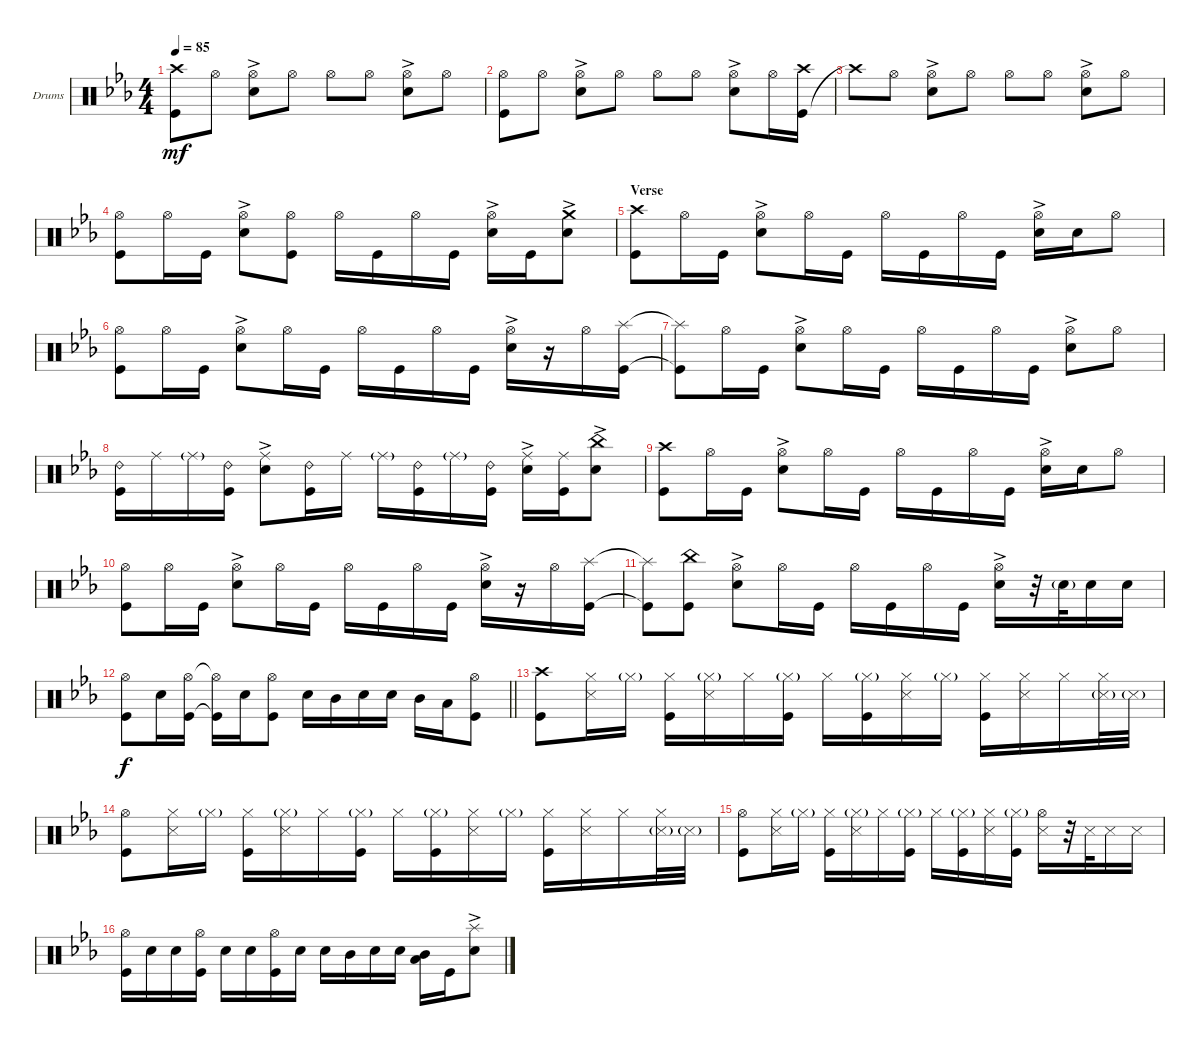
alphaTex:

\bracketExtendMode groupsimilarinstruments
\firstSystemTrackNameOrientation horizontal
\otherSystemsTrackNameOrientation horizontal
\track ("Drumkit" "Drums") {instrument percussion}
\staff {score}
\articulation defaults
\ts (4 4)
\tempo 85
\clef neutral
\ks cminor
("Kick (hit)" "Crash high (hit)").8{dy mf} "Hi-Hat (open)".8 ("Hi-Hat (open)" "Snare (hit) 2"{ac}).8 "Hi-Hat (open)".8 "Hi-Hat (open)".8 "Hi-Hat (open)".8 ("Hi-Hat (open)" "Snare (hit) 2"{ac}).8 "Hi-Hat (open)".8 |
("Kick (hit)" "Hi-Hat (open)").8 "Hi-Hat (open)".8 ("Hi-Hat (open)" "Snare (hit) 2"{ac}).8 "Hi-Hat (open)".8 "Hi-Hat (open)".8 "Hi-Hat (open)".8 ("Hi-Hat (open)" "Snare (hit) 2"{ac}).8 "Hi-Hat (open)".16 ("Kick (hit)" "Crash high (hit)").16 |
"Crash high (hit)"{t}.8 "Hi-Hat (open)".8 ("Hi-Hat (open)" "Snare (hit) 2"{ac}).8 "Hi-Hat (open)".8 "Hi-Hat (open)".8 "Hi-Hat (open)".8 ("Hi-Hat (open)" "Snare (hit) 2"{ac}).8 "Hi-Hat (open)".8 |
("Kick (hit)" "Hi-Hat (open)").8 "Hi-Hat (open)".16 "Kick (hit)".16 ("Snare (hit) 2"{ac} "Hi-Hat (open)").8 ("Kick (hit)" "Hi-Hat (open)").8 "Hi-Hat (open)".16 "Kick (hit)".16 "Hi-Hat (open)".16 "Kick (hit)".16 ("Snare (hit) 2"{ac} "Hi-Hat (open)").16 "Kick (hit)".16 ("Snare (hit) 2"{ac} "Crash medium (hit)").8 |
\section ("" "Verse")
("Kick (hit)" "Crash high (hit)").8 "Hi-Hat (open)".16 "Kick (hit)".16 ("Snare (hit) 2"{ac} "Hi-Hat (open)").8 "Hi-Hat (open)".16 "Kick (hit)".16 "Hi-Hat (open)".16 "Kick (hit)".16 "Hi-Hat (open)".16 "Kick (hit)".16 ("Snare (hit) 2"{ac} "Hi-Hat (open)").16 "Snare (hit) 2".16 "Hi-Hat (open)".8 |
("Kick (hit)" "Hi-Hat (open)").8 "Hi-Hat (open)".16 "Kick (hit)".16 ("Snare (hit) 2"{ac} "Hi-Hat (open)").8 "Hi-Hat (open)".16 "Kick (hit)".16 "Hi-Hat (open)".16 "Kick (hit)".16 "Hi-Hat (open)".16 "Kick (hit)".16 ("Snare (hit) 2"{ac} "Hi-Hat (open)").16 r.16 "Hi-Hat (open)".16 ("Kick (hit)" "Splash (hit)").16 |
("Kick (hit)"{t} "Splash (hit)"{t}).8 "Hi-Hat (open)".16 "Kick (hit)".16 ("Snare (hit) 2"{ac} "Hi-Hat (open)").8 "Hi-Hat (open)".16 "Kick (hit)".16 "Hi-Hat (open)".16 "Kick (hit)".16 "Hi-Hat (open)".16 "Kick (hit)".16 ("Snare (hit) 2"{ac} "Hi-Hat (open)").8 "Hi-Hat (open)".8 |
("Kick (hit)" "Ride (bell) 2").16 "Ride (middle)".16 "Ride (middle)"{g}.16 ("Kick (hit)" "Ride (bell) 2").16 ("Snare (hit) 2"{ac} "Ride (middle)").8 ("Kick (hit)" "Ride (bell) 2").16 "Ride (middle)".16 "Ride (middle)"{g}.16 ("Kick (hit)" "Ride (bell) 2").16 "Ride (middle)"{g}.16 ("Kick (hit)" "Ride (bell) 2").16 ("Snare (hit) 2"{ac} "Ride (middle)").16 ("Kick (hit)" "Ride (middle)").16 ("Snare (hit) 2"{ac} "China (hit)").8 |
("Kick (hit)" "Crash high (hit)").8 "Hi-Hat (open)".16 "Kick (hit)".16 ("Snare (hit) 2"{ac} "Hi-Hat (open)").8 "Hi-Hat (open)".16 "Kick (hit)".16 "Hi-Hat (open)".16 "Kick (hit)".16 "Hi-Hat (open)".16 "Kick (hit)".16 ("Snare (hit) 2"{ac} "Hi-Hat (open)").16 "Snare (hit) 2".16 "Hi-Hat (open)".8 |
("Kick (hit)" "Hi-Hat (open)").8 "Hi-Hat (open)".16 "Kick (hit)".16 ("Snare (hit) 2"{ac} "Hi-Hat (open)").8 "Hi-Hat (open)".16 "Kick (hit)".16 "Hi-Hat (open)".16 "Kick (hit)".16 "Hi-Hat (open)".16 "Kick (hit)".16 ("Snare (hit) 2"{ac} "Hi-Hat (open)").16 r.16 "Hi-Hat (open)".16 ("Kick (hit)" "Splash (hit)").16 |
("Kick (hit)"{t} "Splash (hit)"{t}).8 ("Kick (hit)" "China (hit)").8 ("Snare (hit) 2"{ac} "Hi-Hat (open)").8 "Hi-Hat (open)".16 "Kick (hit)".16 "Hi-Hat (open)".16 "Kick (hit)".16 "Hi-Hat (open)".16 "Kick (hit)".16 ("Snare (hit) 2"{ac} "Hi-Hat (open)").16 r.32 "Snare (hit) 2"{g}.32 "Snare (hit) 2".16 "Snare (hit) 2".16 |
\barLineRight lightlight
("Kick (hit)" "Hi-Hat (open)").8{dy f} "Snare (hit) 2".16 ("Kick (hit)" "Hi-Hat (open)").16 ("Kick (hit)"{t} "Hi-Hat (open)"{t}).16 "Snare (hit) 2".16 ("Kick (hit)" "Hi-Hat (open)").8 "Snare (hit) 2".16 "Mid Tom (hit)".16 "Snare (hit) 2".16 "Snare (hit) 2".16 "Mid Tom (hit)".16 "Low Tom (hit)".16 ("Kick (hit)" "Hi-Hat (open)").8 |
("Kick (hit)" "Crash high (hit)").8 ("Snare (side stick) 3" "Hi-Hat (closed)").16 "Hi-Hat (closed)"{g}.16 ("Kick (hit)" "Hi-Hat (closed)").16 ("Snare (side stick) 3" "Hi-Hat (closed)"{g}).16 "Hi-Hat (closed)".16 ("Kick (hit)" "Hi-Hat (closed)"{g}).16 "Hi-Hat (closed)".16 ("Kick (hit)" "Hi-Hat (closed)"{g}).16 ("Snare (side stick) 3" "Hi-Hat (closed)").16 "Hi-Hat (closed)"{g}.16 ("Kick (hit)" "Hi-Hat (closed)").16 ("Snare (side stick) 3" "Hi-Hat (closed)").16 "Hi-Hat (closed)".16 ("Hi-Hat (closed)" "Snare (side stick) 3"{g}).32 "Snare (side stick) 3"{g}.32 |
("Kick (hit)" "Hi-Hat (open)").8 ("Snare (side stick) 3" "Hi-Hat (closed)").16 "Hi-Hat (closed)"{g}.16 ("Kick (hit)" "Hi-Hat (closed)").16 ("Snare (side stick) 3" "Hi-Hat (closed)"{g}).16 "Hi-Hat (closed)".16 ("Kick (hit)" "Hi-Hat (closed)"{g}).16 "Hi-Hat (closed)".16 ("Kick (hit)" "Hi-Hat (closed)"{g}).16 ("Snare (side stick) 3" "Hi-Hat (closed)").16 "Hi-Hat (closed)"{g}.16 ("Kick (hit)" "Hi-Hat (closed)").16 ("Snare (side stick) 3" "Hi-Hat (closed)").16 "Hi-Hat (closed)".16 ("Hi-Hat (closed)" "Snare (side stick) 3"{g}).32 "Snare (side stick) 3"{g}.32 |
("Kick (hit)" "Hi-Hat (open)").8 ("Snare (side stick) 3" "Hi-Hat (closed)").16 "Hi-Hat (closed)"{g}.16 ("Kick (hit)" "Hi-Hat (closed)").16 ("Snare (side stick) 3" "Hi-Hat (closed)"{g}).16 "Hi-Hat (closed)".16 ("Kick (hit)" "Hi-Hat (closed)"{g}).16 "Hi-Hat (closed)".16 ("Kick (hit)" "Hi-Hat (closed)"{g}).16 ("Snare (side stick) 3" "Hi-Hat (closed)").16 ("Hi-Hat (closed)"{g} "Kick (hit)").16 ("Snare (side stick) 3" "Hi-Hat (open)").16 r.32 "Snare (side stick) 3".32 "Snare (side stick) 3".16 "Snare (side stick) 3".16 |
("Kick (hit)" "Hi-Hat (open)").16 "Snare (hit) 2".16 "Snare (hit) 2".16 ("Kick (hit)" "Hi-Hat (open)").16 "Snare (hit) 2".16 "Snare (hit) 2".16 ("Kick (hit)" "Hi-Hat (open)").16 "Snare (hit) 2".16 "Snare (hit) 2".16 "Mid Tom (hit)".16 "Snare (hit) 2".16 "Snare (hit) 2".16 ("Mid Tom (hit)" "Low Tom (hit)").16 "Kick (hit)".16 ("Snare (hit) 2"{ac} "Splash (hit)").8
